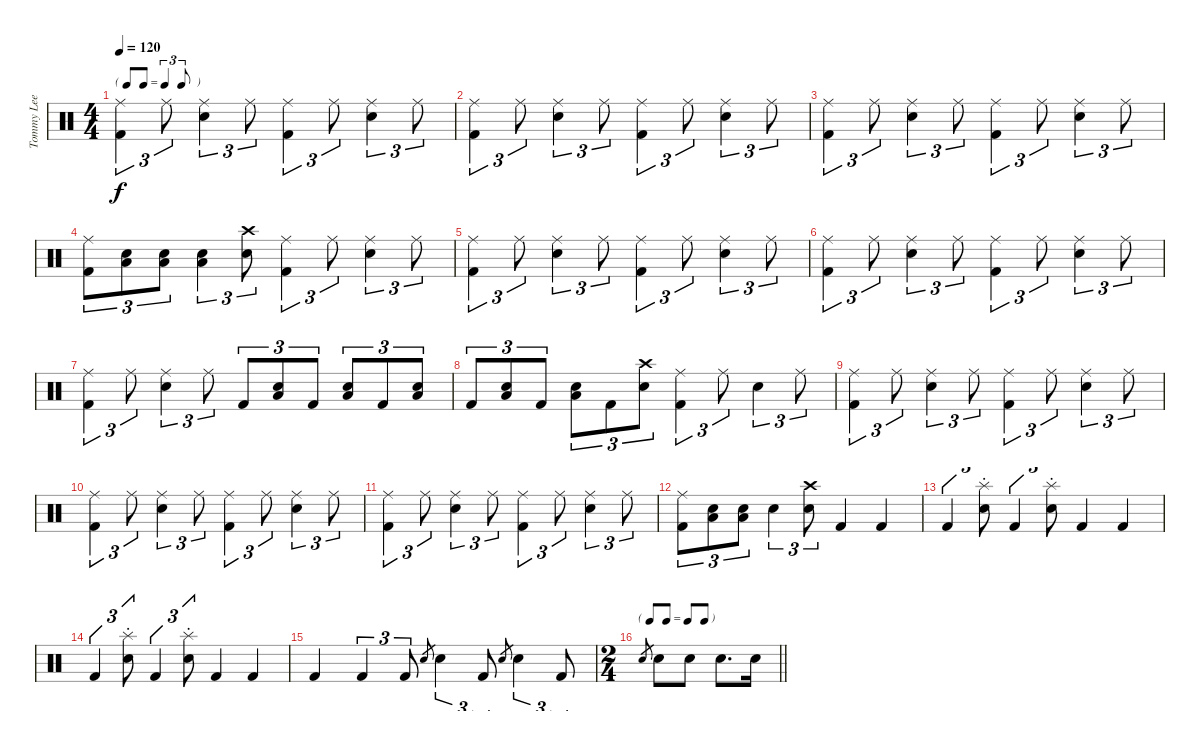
\track ("Tommy Lee - Drums" "Tommy Lee ") {instrument percussion}
\staff {score}
\articulation defaults
\ts (4 4)
\tf triplet8th
\tempo 120
\clef neutral
\ks c
("Ride (middle)" "Kick (hit) 2").4{tu (3 2) dy f} "Ride (middle)".8{tu (3 2)} ("Ride (middle)" "Snare (hit) 2").4{tu (3 2)} "Ride (middle)".8{tu (3 2)} ("Ride (middle)" "Kick (hit) 2").4{tu (3 2)} "Ride (middle)".8{tu (3 2)} ("Ride (middle)" "Snare (hit) 2").4{tu (3 2)} "Ride (middle)".8{tu (3 2)} |
("Ride (middle)" "Kick (hit) 2").4{tu (3 2)} "Ride (middle)".8{tu (3 2)} ("Ride (middle)" "Snare (hit) 2").4{tu (3 2)} "Ride (middle)".8{tu (3 2)} ("Ride (middle)" "Kick (hit) 2").4{tu (3 2)} "Ride (middle)".8{tu (3 2)} ("Ride (middle)" "Snare (hit) 2").4{tu (3 2)} "Ride (middle)".8{tu (3 2)} |
("Ride (middle)" "Kick (hit) 2").4{tu (3 2)} "Ride (middle)".8{tu (3 2)} ("Ride (middle)" "Snare (hit) 2").4{tu (3 2)} "Ride (middle)".8{tu (3 2)} ("Ride (middle)" "Kick (hit) 2").4{tu (3 2)} "Ride (middle)".8{tu (3 2)} ("Ride (middle)" "Snare (hit) 2").4{tu (3 2)} "Ride (middle)".8{tu (3 2)} |
("Ride (middle)" "Kick (hit) 2").8{tu (3 2)} ("Snare (hit) 2" "Low Floor Tom (hit)").8{tu (3 2)} ("Snare (hit) 2" "Low Floor Tom (hit)").8{tu (3 2)} ("Snare (hit) 2" "Low Floor Tom (hit)").4{tu (3 2)} ("Crash high (hit)" "Snare (hit) 2").8{tu (3 2)} ("Ride (middle)" "Kick (hit) 2").4{tu (3 2)} "Ride (middle)".8{tu (3 2)} ("Ride (middle)" "Snare (hit) 2").4{tu (3 2)} "Ride (middle)".8{tu (3 2)} |
("Ride (middle)" "Kick (hit) 2").4{tu (3 2)} "Ride (middle)".8{tu (3 2)} ("Ride (middle)" "Snare (hit) 2").4{tu (3 2)} "Ride (middle)".8{tu (3 2)} ("Ride (middle)" "Kick (hit) 2").4{tu (3 2)} "Ride (middle)".8{tu (3 2)} ("Ride (middle)" "Snare (hit) 2").4{tu (3 2)} "Ride (middle)".8{tu (3 2)} |
("Ride (middle)" "Kick (hit) 2").4{tu (3 2)} "Ride (middle)".8{tu (3 2)} ("Ride (middle)" "Snare (hit) 2").4{tu (3 2)} "Ride (middle)".8{tu (3 2)} ("Ride (middle)" "Kick (hit) 2").4{tu (3 2)} "Ride (middle)".8{tu (3 2)} ("Ride (middle)" "Snare (hit) 2").4{tu (3 2)} "Ride (middle)".8{tu (3 2)} |
("Ride (middle)" "Kick (hit) 2").4{tu (3 2)} "Ride (middle)".8{tu (3 2)} ("Ride (middle)" "Snare (hit) 2").4{tu (3 2)} "Ride (middle)".8{tu (3 2)} "Kick (hit) 2".8{tu (3 2)} ("Snare (hit) 2" "Low Floor Tom (hit)").8{tu (3 2)} "Kick (hit) 2".8{tu (3 2)} ("Snare (hit) 2" "Low Floor Tom (hit)").8{tu (3 2)} "Kick (hit) 2".8{tu (3 2)} ("Snare (hit) 2" "Low Floor Tom (hit)").8{tu (3 2)} |
"Kick (hit) 2".8{tu (3 2)} ("Snare (hit) 2" "Low Floor Tom (hit)").8{tu (3 2)} "Kick (hit) 2".8{tu (3 2)} ("Snare (hit) 2" "Low Floor Tom (hit)").8{tu (3 2)} "Kick (hit) 2".8{tu (3 2)} ("Crash high (hit)" "Snare (hit) 2").8{tu (3 2)} ("Ride (middle)" "Kick (hit) 2").4{tu (3 2)} "Ride (middle)".8{tu (3 2)} "Snare (hit) 2".4{tu (3 2)} "Ride (middle)".8{tu (3 2)} |
("Ride (middle)" "Kick (hit) 2").4{tu (3 2)} "Ride (middle)".8{tu (3 2)} ("Ride (middle)" "Snare (hit) 2").4{tu (3 2)} "Ride (middle)".8{tu (3 2)} ("Ride (middle)" "Kick (hit) 2").4{tu (3 2)} "Ride (middle)".8{tu (3 2)} ("Ride (middle)" "Snare (hit) 2").4{tu (3 2)} "Ride (middle)".8{tu (3 2)} |
("Ride (middle)" "Kick (hit) 2").4{tu (3 2)} "Ride (middle)".8{tu (3 2)} ("Ride (middle)" "Snare (hit) 2").4{tu (3 2)} "Ride (middle)".8{tu (3 2)} ("Ride (middle)" "Kick (hit) 2").4{tu (3 2)} "Ride (middle)".8{tu (3 2)} ("Ride (middle)" "Snare (hit) 2").4{tu (3 2)} "Ride (middle)".8{tu (3 2)} |
("Ride (middle)" "Kick (hit) 2").4{tu (3 2)} "Ride (middle)".8{tu (3 2)} ("Ride (middle)" "Snare (hit) 2").4{tu (3 2)} "Ride (middle)".8{tu (3 2)} ("Ride (middle)" "Kick (hit) 2").4{tu (3 2)} "Ride (middle)".8{tu (3 2)} ("Ride (middle)" "Snare (hit) 2").4{tu (3 2)} "Ride (middle)".8{tu (3 2)} |
("Ride (middle)" "Kick (hit) 2").8{tu (3 2)} ("Snare (hit) 2" "Low Floor Tom (hit)").8{tu (3 2)} ("Snare (hit) 2" "Low Floor Tom (hit)").8{tu (3 2)} "Snare (hit) 2".4{tu (3 2)} ("Crash high (hit)" "Snare (hit) 2").8{tu (3 2)} "Kick (hit) 2".4 "Kick (hit) 2".4 |
"Kick (hit) 2".4{tu (3 2)} ("Splash (hit)"{st} "Snare (hit) 2").8{tu (3 2)} "Kick (hit) 2".4{tu (3 2)} ("Splash (hit)"{st} "Snare (hit) 2").8{tu (3 2)} "Kick (hit) 2".4 "Kick (hit) 2".4 |
"Kick (hit) 2".4{tu (3 2)} ("Splash (hit)"{st} "Snare (hit) 2").8{tu (3 2)} "Kick (hit) 2".4{tu (3 2)} ("Splash (hit)"{st} "Snare (hit) 2").8{tu (3 2)} "Kick (hit) 2".4 "Kick (hit) 2".4 |
"Kick (hit) 2".4 "Kick (hit) 2".4{tu (3 2)} "Kick (hit) 2".8{tu (3 2)} "Snare (hit) 2".8{gr} "Snare (hit) 2".4{tu (3 2)} "Kick (hit) 2".8{tu (3 2)} "Snare (hit) 2".8{gr} "Snare (hit) 2".4{tu (3 2)} "Kick (hit) 2".8{tu (3 2)} |
\ts (2 4)
\tf none
\barLineRight lightlight "Snare (hit) 2".8{gr} "Snare (hit) 2".8 "Snare (hit) 2".8 "Snare (hit) 2".8{d} "Snare (hit) 2".16
